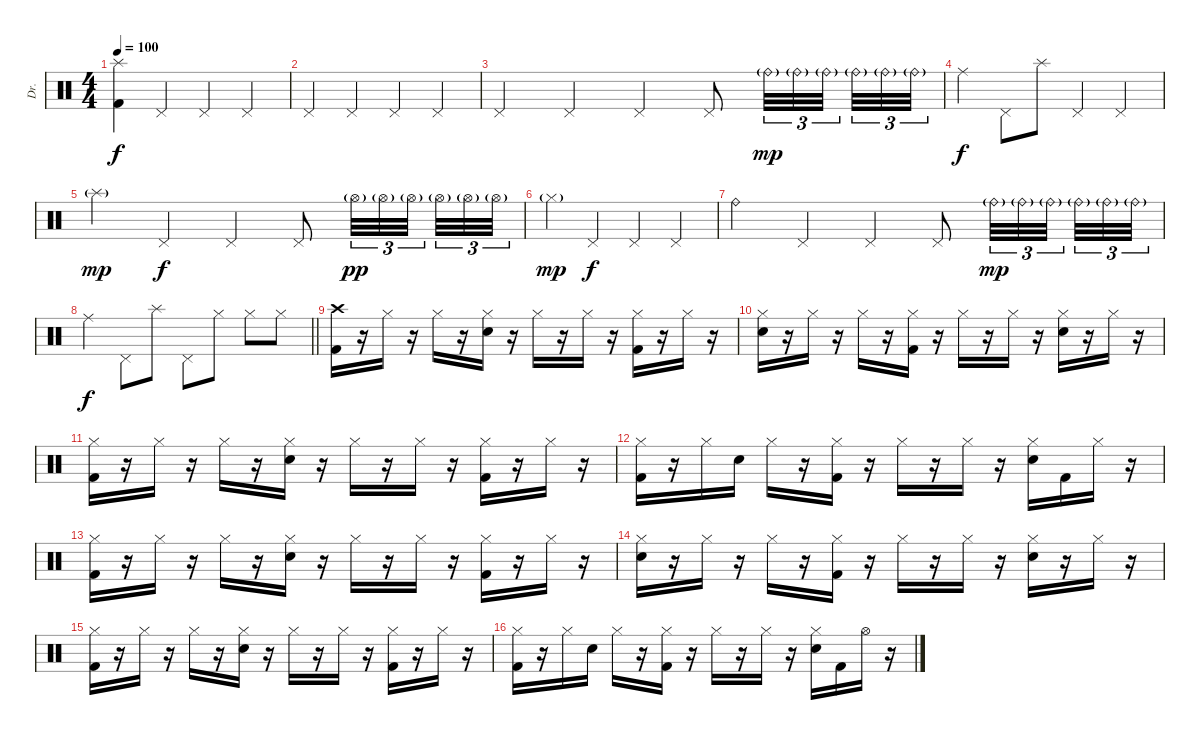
\track ("Dr." "Dr.") {instrument percussion}
\staff {score}
\articulation defaults
\ts (4 4)
\tempo 100
\clef neutral
\ks c
("Splash (hit)" "Kick (hit) 2").4{dy f} "Pedal Hi-Hat (hit)".4 "Pedal Hi-Hat (hit)".4 "Pedal Hi-Hat (hit)".4 |
"Pedal Hi-Hat (hit)".4 "Pedal Hi-Hat (hit)".4 "Pedal Hi-Hat (hit)".4 "Pedal Hi-Hat (hit)".4 |
"Pedal Hi-Hat (hit)".4 "Pedal Hi-Hat (hit)".4 "Pedal Hi-Hat (hit)".4 "Pedal Hi-Hat (hit)".8 "Ride (bell)"{g}.32{tu (3 2) dy mp} "Ride (bell)"{g}.32{tu (3 2)} "Ride (bell)"{g}.32{tu (3 2) beam splitsecondary} "Ride (bell)"{g}.32{tu (3 2)} "Ride (bell)"{g}.32{tu (3 2)} "Ride (bell)"{g}.32{tu (3 2)} |
"Ride (middle)".4{dy f} "Pedal Hi-Hat (hit)".8 "Splash (hit)".8 "Pedal Hi-Hat (hit)".4 "Pedal Hi-Hat (hit)".4 |
"Splash (hit)"{g}.4{dy mp} "Pedal Hi-Hat (hit)".4{dy f} "Pedal Hi-Hat (hit)".4 "Pedal Hi-Hat (hit)".8 "Hi-Hat (open)"{g}.32{tu (3 2) dy pp} "Hi-Hat (open)"{g}.32{tu (3 2)} "Hi-Hat (open)"{g}.32{tu (3 2) beam splitsecondary} "Hi-Hat (open)"{g}.32{tu (3 2)} "Hi-Hat (open)"{g}.32{tu (3 2)} "Hi-Hat (open)"{g}.32{tu (3 2)} |
"Hi-Hat (closed)"{g}.4{dy mp} "Pedal Hi-Hat (hit)".4{dy f} "Pedal Hi-Hat (hit)".4 "Pedal Hi-Hat (hit)".4 |
"Ride (bell)".4 "Pedal Hi-Hat (hit)".4 "Pedal Hi-Hat (hit)".4 "Pedal Hi-Hat (hit)".8 "Ride (bell)"{g}.32{tu (3 2) dy mp} "Ride (bell)"{g}.32{tu (3 2)} "Ride (bell)"{g}.32{tu (3 2) beam splitsecondary} "Ride (bell)"{g}.32{tu (3 2)} "Ride (bell)"{g}.32{tu (3 2)} "Ride (bell)"{g}.32{tu (3 2)} |
\barLineRight lightlight "Ride (middle)".4{dy f} "Pedal Hi-Hat (hit)".8 "Splash (hit)".8 "Pedal Hi-Hat (hit)".8 "Hi-Hat (closed)".8 "Hi-Hat (closed)".8 "Hi-Hat (closed)".8
|
("Crash high (hit)" "Kick (hit) 2").16 r.16 "Hi-Hat (closed)".16 r.16 "Hi-Hat (closed)".16 r.16 ("Hi-Hat (closed)" "Electric Snare (hit)").16 r.16 "Hi-Hat (closed)".16 r.16 "Hi-Hat (closed)".16 r.16 ("Hi-Hat (closed)" "Kick (hit) 2").16 r.16 "Hi-Hat (closed)".16 r.16 |
("Hi-Hat (closed)" "Electric Snare (hit)").16 r.16 "Hi-Hat (closed)".16 r.16 "Hi-Hat (closed)".16 r.16 ("Hi-Hat (closed)" "Kick (hit) 2").16 r.16 "Hi-Hat (closed)".16 r.16 "Hi-Hat (closed)".16 r.16 ("Hi-Hat (closed)" "Electric Snare (hit)").16 r.16 "Hi-Hat (closed)".16 r.16 |
("Hi-Hat (closed)" "Kick (hit) 2").16 r.16 "Hi-Hat (closed)".16 r.16 "Hi-Hat (closed)".16 r.16 ("Hi-Hat (closed)" "Electric Snare (hit)").16 r.16 "Hi-Hat (closed)".16 r.16 "Hi-Hat (closed)".16 r.16 ("Hi-Hat (closed)" "Kick (hit) 2").16 r.16 "Hi-Hat (closed)".16 r.16 |
("Hi-Hat (closed)" "Kick (hit) 2").16 r.16 "Hi-Hat (closed)".16 "Electric Snare (hit)".16 "Hi-Hat (closed)".16 r.16 ("Hi-Hat (closed)" "Kick (hit) 2").16 r.16 "Hi-Hat (closed)".16 r.16 "Hi-Hat (closed)".16 r.16 ("Hi-Hat (closed)" "Electric Snare (hit)").16 "Kick (hit) 2".16 "Hi-Hat (closed)".16 r.16 |
("Hi-Hat (closed)" "Kick (hit) 2").16 r.16 "Hi-Hat (closed)".16 r.16 "Hi-Hat (closed)".16 r.16 ("Hi-Hat (closed)" "Electric Snare (hit)").16 r.16 "Hi-Hat (closed)".16 r.16 "Hi-Hat (closed)".16 r.16 ("Hi-Hat (closed)" "Kick (hit) 2").16 r.16 "Hi-Hat (closed)".16 r.16 |
("Hi-Hat (closed)" "Electric Snare (hit)").16 r.16 "Hi-Hat (closed)".16 r.16 "Hi-Hat (closed)".16 r.16 ("Hi-Hat (closed)" "Kick (hit) 2").16 r.16 "Hi-Hat (closed)".16 r.16 "Hi-Hat (closed)".16 r.16 ("Hi-Hat (closed)" "Electric Snare (hit)").16 r.16 "Hi-Hat (closed)".16 r.16 |
("Hi-Hat (closed)" "Kick (hit) 2").16 r.16 "Hi-Hat (closed)".16 r.16 "Hi-Hat (closed)".16 r.16 ("Hi-Hat (closed)" "Electric Snare (hit)").16 r.16 "Hi-Hat (closed)".16 r.16 "Hi-Hat (closed)".16 r.16 ("Hi-Hat (closed)" "Kick (hit) 2").16 r.16 "Hi-Hat (closed)".16 r.16 |
("Hi-Hat (closed)" "Kick (hit) 2").16 r.16 "Hi-Hat (closed)".16 "Electric Snare (hit)".16 "Hi-Hat (closed)".16 r.16 ("Hi-Hat (closed)" "Kick (hit) 2").16 r.16 "Hi-Hat (closed)".16 r.16 "Hi-Hat (closed)".16 r.16 ("Hi-Hat (closed)" "Electric Snare (hit)").16 "Kick (hit) 2".16 "Hi-Hat (open)".16 r.16
